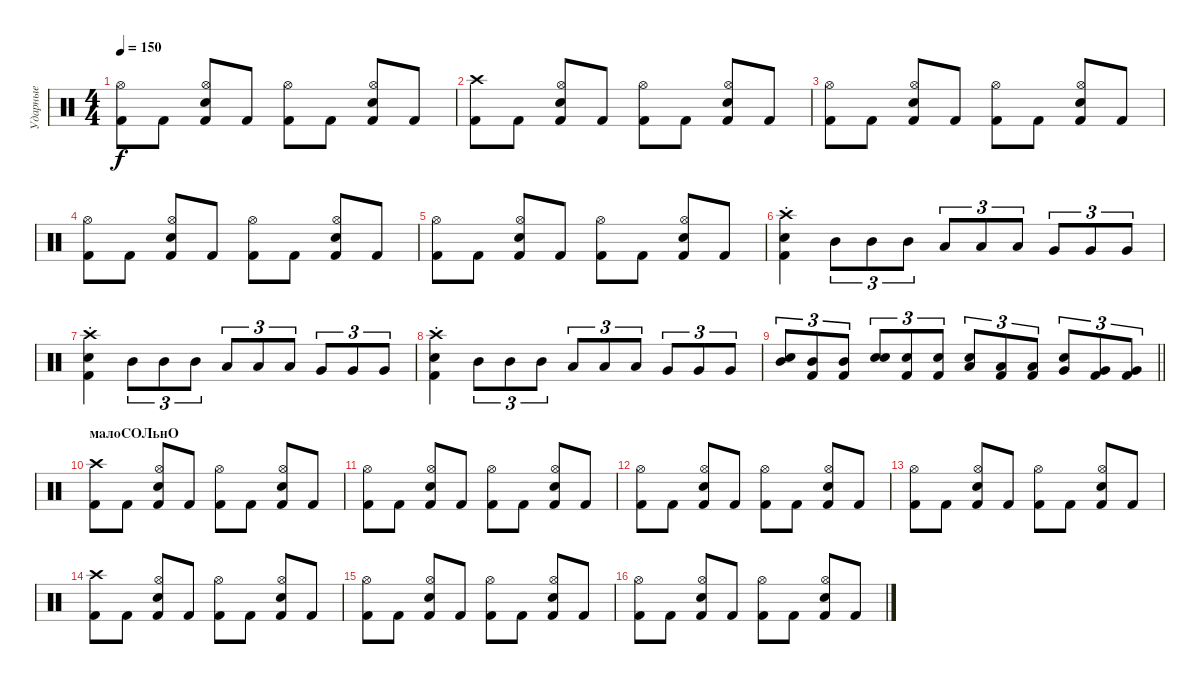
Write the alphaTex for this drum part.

\track ("Ударные" "Ударные") {instrument percussion}
\staff {score}
\articulation defaults
\ts (4 4)
\tempo 150
\clef neutral
\ks c
("Kick (hit) 2" "Hi-Hat (open)").8{dy f} "Kick (hit) 2".8 ("Snare (hit) 2" "Kick (hit) 2" "Hi-Hat (open)").8 "Kick (hit) 2".8 ("Kick (hit) 2" "Hi-Hat (open)").8 "Kick (hit) 2".8 ("Snare (hit) 2" "Kick (hit) 2" "Hi-Hat (open)").8 "Kick (hit) 2".8 |
("Kick (hit) 2" "Crash high (hit)").8 "Kick (hit) 2".8 ("Snare (hit) 2" "Kick (hit) 2" "Hi-Hat (open)").8 "Kick (hit) 2".8 ("Kick (hit) 2" "Hi-Hat (open)").8 "Kick (hit) 2".8 ("Snare (hit) 2" "Kick (hit) 2" "Hi-Hat (open)").8 "Kick (hit) 2".8 |
("Kick (hit) 2" "Hi-Hat (open)").8 "Kick (hit) 2".8 ("Snare (hit) 2" "Kick (hit) 2" "Hi-Hat (open)").8 "Kick (hit) 2".8 ("Kick (hit) 2" "Hi-Hat (open)").8 "Kick (hit) 2".8 ("Snare (hit) 2" "Kick (hit) 2" "Hi-Hat (open)").8 "Kick (hit) 2".8 |
("Kick (hit) 2" "Hi-Hat (open)").8 "Kick (hit) 2".8 ("Snare (hit) 2" "Kick (hit) 2" "Hi-Hat (open)").8 "Kick (hit) 2".8 ("Kick (hit) 2" "Hi-Hat (open)").8 "Kick (hit) 2".8 ("Snare (hit) 2" "Kick (hit) 2" "Hi-Hat (open)").8 "Kick (hit) 2".8 |
("Kick (hit) 2" "Hi-Hat (open)").8 "Kick (hit) 2".8 ("Snare (hit) 2" "Kick (hit) 2" "Hi-Hat (open)").8 "Kick (hit) 2".8 ("Kick (hit) 2" "Hi-Hat (open)").8 "Kick (hit) 2".8 ("Snare (hit) 2" "Kick (hit) 2" "Hi-Hat (open)").8 "Kick (hit) 2".8 |
("Kick (hit) 2"{st} "Snare (hit) 2"{st} "Crash high (hit)"{st}).4 "Mid Tom (hit)".8{tu (3 2)} "Mid Tom (hit)".8{tu (3 2)} "Mid Tom (hit)".8{tu (3 2)} "Low Tom (hit)".8{tu (3 2)} "Low Tom (hit)".8{tu (3 2)} "Low Tom (hit)".8{tu (3 2)} "Very Low Tom (hit)".8{tu (3 2)} "Very Low Tom (hit)".8{tu (3 2)} "Very Low Tom (hit)".8{tu (3 2)} |
("Kick (hit) 2"{st} "Snare (hit) 2"{st} "Crash high (hit)"{st}).4 "Mid Tom (hit)".8{tu (3 2)} "Mid Tom (hit)".8{tu (3 2)} "Mid Tom (hit)".8{tu (3 2)} "Low Tom (hit)".8{tu (3 2)} "Low Tom (hit)".8{tu (3 2)} "Low Tom (hit)".8{tu (3 2)} "Very Low Tom (hit)".8{tu (3 2)} "Very Low Tom (hit)".8{tu (3 2)} "Very Low Tom (hit)".8{tu (3 2)} |
("Kick (hit) 2"{st} "Snare (hit) 2"{st} "Crash high (hit)"{st}).4 "Mid Tom (hit)".8{tu (3 2)} "Mid Tom (hit)".8{tu (3 2)} "Mid Tom (hit)".8{tu (3 2)} "Low Tom (hit)".8{tu (3 2)} "Low Tom (hit)".8{tu (3 2)} "Low Tom (hit)".8{tu (3 2)} "Very Low Tom (hit)".8{tu (3 2)} "Very Low Tom (hit)".8{tu (3 2)} "Very Low Tom (hit)".8{tu (3 2)} |
\barLineRight lightlight
("Mid Tom (hit)" "Snare (hit) 2").8{tu (3 2)} ("Mid Tom (hit)" "Kick (hit) 2").8{tu (3 2)} ("Mid Tom (hit)" "Kick (hit) 2").8{tu (3 2)} ("Electric Snare (hit)" "Snare (hit) 2").8{tu (3 2)} ("Electric Snare (hit)" "Kick (hit) 2").8{tu (3 2)} ("Electric Snare (hit)" "Kick (hit) 2").8{tu (3 2)} ("Low Tom (hit)" "Snare (hit) 2").8{tu (3 2)} ("Low Tom (hit)" "Kick (hit) 2").8{tu (3 2)} ("Low Tom (hit)" "Kick (hit) 2").8{tu (3 2)} ("Very Low Tom (hit)" "Snare (hit) 2").8{tu (3 2)} ("Very Low Tom (hit)" "Kick (hit) 2").8{tu (3 2)} ("Very Low Tom (hit)" "Kick (hit) 2").8{tu (3 2)} |
\section ("" "малоСОЛьнО")
("Kick (hit) 2" "Crash high (hit)").8 "Kick (hit) 2".8 ("Snare (hit) 2" "Kick (hit) 2" "Hi-Hat (open)").8 "Kick (hit) 2".8 ("Kick (hit) 2" "Hi-Hat (open)").8 "Kick (hit) 2".8 ("Snare (hit) 2" "Kick (hit) 2" "Hi-Hat (open)").8 "Kick (hit) 2".8 |
("Kick (hit) 2" "Hi-Hat (open)").8 "Kick (hit) 2".8 ("Snare (hit) 2" "Kick (hit) 2" "Hi-Hat (open)").8 "Kick (hit) 2".8 ("Kick (hit) 2" "Hi-Hat (open)").8 "Kick (hit) 2".8 ("Snare (hit) 2" "Kick (hit) 2" "Hi-Hat (open)").8 "Kick (hit) 2".8 |
("Kick (hit) 2" "Hi-Hat (open)").8 "Kick (hit) 2".8 ("Snare (hit) 2" "Kick (hit) 2" "Hi-Hat (open)").8 "Kick (hit) 2".8 ("Kick (hit) 2" "Hi-Hat (open)").8 "Kick (hit) 2".8 ("Snare (hit) 2" "Kick (hit) 2" "Hi-Hat (open)").8 "Kick (hit) 2".8 |
("Kick (hit) 2" "Hi-Hat (open)").8 "Kick (hit) 2".8 ("Snare (hit) 2" "Kick (hit) 2" "Hi-Hat (open)").8 "Kick (hit) 2".8 ("Kick (hit) 2" "Hi-Hat (open)").8 "Kick (hit) 2".8 ("Snare (hit) 2" "Kick (hit) 2" "Hi-Hat (open)").8 "Kick (hit) 2".8 |
("Kick (hit) 2" "Crash high (hit)").8 "Kick (hit) 2".8 ("Snare (hit) 2" "Kick (hit) 2" "Hi-Hat (open)").8 "Kick (hit) 2".8 ("Kick (hit) 2" "Hi-Hat (open)").8 "Kick (hit) 2".8 ("Snare (hit) 2" "Kick (hit) 2" "Hi-Hat (open)").8 "Kick (hit) 2".8 |
("Kick (hit) 2" "Hi-Hat (open)").8 "Kick (hit) 2".8 ("Snare (hit) 2" "Kick (hit) 2" "Hi-Hat (open)").8 "Kick (hit) 2".8 ("Kick (hit) 2" "Hi-Hat (open)").8 "Kick (hit) 2".8 ("Snare (hit) 2" "Kick (hit) 2" "Hi-Hat (open)").8 "Kick (hit) 2".8 |
("Kick (hit) 2" "Hi-Hat (open)").8 "Kick (hit) 2".8 ("Snare (hit) 2" "Kick (hit) 2" "Hi-Hat (open)").8 "Kick (hit) 2".8 ("Kick (hit) 2" "Hi-Hat (open)").8 "Kick (hit) 2".8 ("Snare (hit) 2" "Kick (hit) 2" "Hi-Hat (open)").8 "Kick (hit) 2".8
